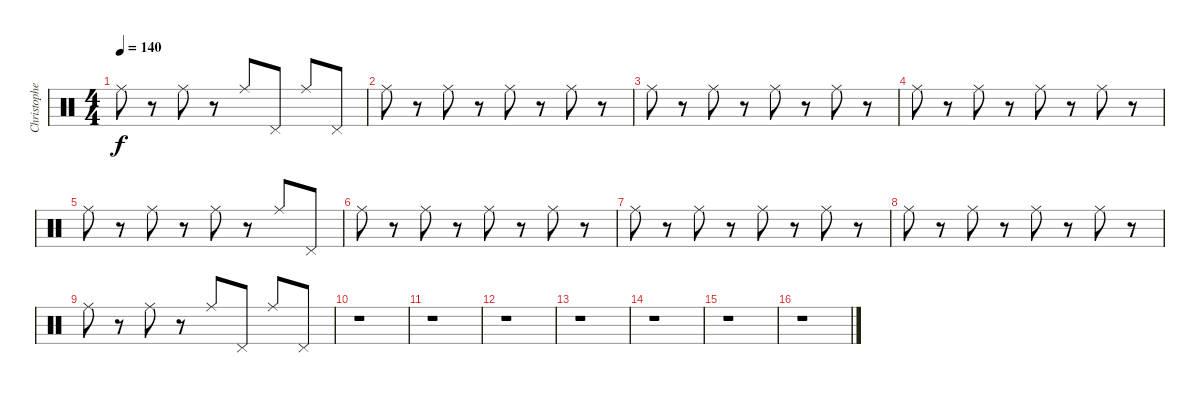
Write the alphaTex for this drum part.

\track ("Christopher - Drums" "Christophe") {instrument percussion}
\staff {score}
\articulation defaults
\ts (4 4)
\tempo 140
\clef neutral
\ks c "Ride (middle)".8{dy f}
r.8 "Ride (middle)".8 r.8 "Ride (middle)".8 "Pedal Hi-Hat (hit)".8 "Ride (middle)".8 "Pedal Hi-Hat (hit)".8 |
"Ride (middle)".8 r.8 "Ride (middle)".8 r.8 "Ride (middle)".8 r.8 "Ride (middle)".8 r.8 |
"Ride (middle)".8 r.8 "Ride (middle)".8 r.8 "Ride (middle)".8 r.8 "Ride (middle)".8 r.8 |
"Ride (middle)".8 r.8 "Ride (middle)".8 r.8 "Ride (middle)".8 r.8 "Ride (middle)".8 r.8 |
"Ride (middle)".8 r.8 "Ride (middle)".8 r.8 "Ride (middle)".8 r.8 "Ride (middle)".8 "Pedal Hi-Hat (hit)".8 |
"Ride (middle)".8 r.8 "Ride (middle)".8 r.8 "Ride (middle)".8 r.8 "Ride (middle)".8 r.8 |
"Ride (middle)".8 r.8 "Ride (middle)".8 r.8 "Ride (middle)".8 r.8 "Ride (middle)".8 r.8 |
"Ride (middle)".8 r.8 "Ride (middle)".8 r.8 "Ride (middle)".8 r.8 "Ride (middle)".8 r.8 |
"Ride (middle)".8 r.8 "Ride (middle)".8 r.8 "Ride (middle)".8 "Pedal Hi-Hat (hit)".8 "Ride (middle)".8 "Pedal Hi-Hat (hit)".8 |
r.1 |
r.1 |
r.1 |
r.1 |
r.1 |
r.1 |
r.1
